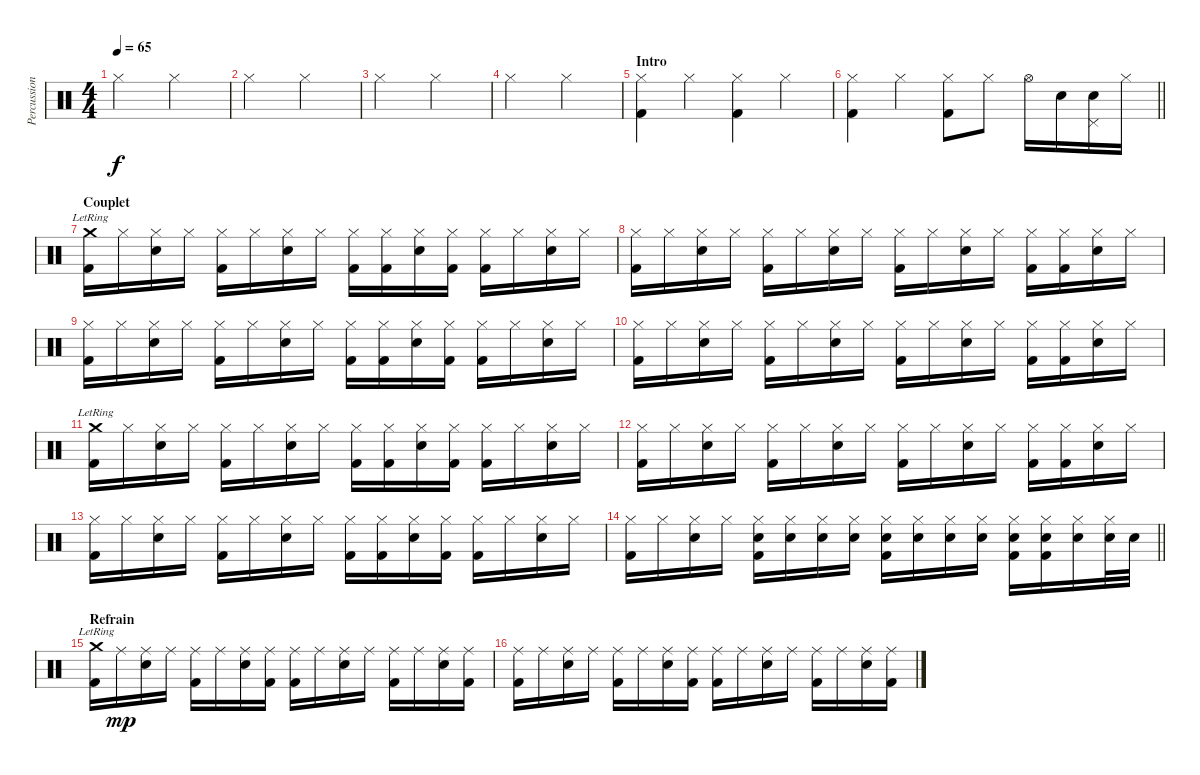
\track ("Percussions" "Percussion") {instrument percussion}
\staff {score}
\articulation defaults
\ts (4 4)
\tempo 65
\clef neutral
\ks c "Hi-Hat (closed)".2{dy f} "Hi-Hat (closed)".2
|
"Hi-Hat (closed)".2 "Hi-Hat (closed)".2 |
"Hi-Hat (closed)".2 "Hi-Hat (closed)".2 |
"Hi-Hat (closed)".2 "Hi-Hat (closed)".2 |
\section ("" "Intro")
("Hi-Hat (closed)" "Kick (hit) 2").4 "Hi-Hat (closed)".4 ("Hi-Hat (closed)" "Kick (hit) 2").4 "Hi-Hat (closed)".4 |
\barLineRight lightlight
("Hi-Hat (closed)" "Kick (hit) 2").4 "Hi-Hat (closed)".4 ("Hi-Hat (closed)" "Kick (hit) 2").8 "Hi-Hat (closed)".8 "Hi-Hat (open)".16 "Snare (hit) 2".16 ("Pedal Hi-Hat (hit)" "Snare (hit) 2").16 "Hi-Hat (closed)".16 |
\section ("" "Couplet")
("Crash medium (hit)"{lr} "Kick (hit) 2").16 "Hi-Hat (closed)".16 ("Hi-Hat (closed)" "Snare (hit) 2").16 "Hi-Hat (closed)".16 ("Hi-Hat (closed)" "Kick (hit) 2").16 "Hi-Hat (closed)".16 ("Hi-Hat (closed)" "Snare (hit) 2").16 "Hi-Hat (closed)".16 ("Hi-Hat (closed)" "Kick (hit) 2").16 ("Hi-Hat (closed)" "Kick (hit) 2").16 ("Hi-Hat (closed)" "Snare (hit) 2").16 ("Hi-Hat (closed)" "Kick (hit) 2").16 ("Hi-Hat (closed)" "Kick (hit) 2").16 "Hi-Hat (closed)".16 ("Hi-Hat (closed)" "Snare (hit) 2").16 "Hi-Hat (closed)".16 |
("Hi-Hat (closed)" "Kick (hit) 2").16 "Hi-Hat (closed)".16 ("Hi-Hat (closed)" "Snare (hit) 2").16 "Hi-Hat (closed)".16 ("Hi-Hat (closed)" "Kick (hit) 2").16 "Hi-Hat (closed)".16 ("Hi-Hat (closed)" "Snare (hit) 2").16 "Hi-Hat (closed)".16 ("Hi-Hat (closed)" "Kick (hit) 2").16 "Hi-Hat (closed)".16 ("Hi-Hat (closed)" "Snare (hit) 2").16 "Hi-Hat (closed)".16 ("Hi-Hat (closed)" "Kick (hit) 2").16 ("Hi-Hat (closed)" "Kick (hit) 2").16 ("Hi-Hat (closed)" "Snare (hit) 2").16 "Hi-Hat (closed)".16 |
("Hi-Hat (closed)" "Kick (hit) 2").16 "Hi-Hat (closed)".16 ("Hi-Hat (closed)" "Snare (hit) 2").16 "Hi-Hat (closed)".16 ("Hi-Hat (closed)" "Kick (hit) 2").16 "Hi-Hat (closed)".16 ("Hi-Hat (closed)" "Snare (hit) 2").16 "Hi-Hat (closed)".16 ("Hi-Hat (closed)" "Kick (hit) 2").16 ("Hi-Hat (closed)" "Kick (hit) 2").16 ("Hi-Hat (closed)" "Snare (hit) 2").16 ("Hi-Hat (closed)" "Kick (hit) 2").16 ("Hi-Hat (closed)" "Kick (hit) 2").16 "Hi-Hat (closed)".16 ("Hi-Hat (closed)" "Snare (hit) 2").16 "Hi-Hat (closed)".16 |
("Hi-Hat (closed)" "Kick (hit) 2").16 "Hi-Hat (closed)".16 ("Hi-Hat (closed)" "Snare (hit) 2").16 "Hi-Hat (closed)".16 ("Hi-Hat (closed)" "Kick (hit) 2").16 "Hi-Hat (closed)".16 ("Hi-Hat (closed)" "Snare (hit) 2").16 "Hi-Hat (closed)".16 ("Hi-Hat (closed)" "Kick (hit) 2").16 "Hi-Hat (closed)".16 ("Hi-Hat (closed)" "Snare (hit) 2").16 "Hi-Hat (closed)".16 ("Hi-Hat (closed)" "Kick (hit) 2").16 ("Hi-Hat (closed)" "Kick (hit) 2").16 ("Hi-Hat (closed)" "Snare (hit) 2").16 "Hi-Hat (closed)".16 |
("Crash medium (hit)"{lr} "Kick (hit) 2").16 "Hi-Hat (closed)".16 ("Hi-Hat (closed)" "Snare (hit) 2").16 "Hi-Hat (closed)".16 ("Hi-Hat (closed)" "Kick (hit) 2").16 "Hi-Hat (closed)".16 ("Hi-Hat (closed)" "Snare (hit) 2").16 "Hi-Hat (closed)".16 ("Hi-Hat (closed)" "Kick (hit) 2").16 ("Hi-Hat (closed)" "Kick (hit) 2").16 ("Hi-Hat (closed)" "Snare (hit) 2").16 ("Hi-Hat (closed)" "Kick (hit) 2").16 ("Hi-Hat (closed)" "Kick (hit) 2").16 "Hi-Hat (closed)".16 ("Hi-Hat (closed)" "Snare (hit) 2").16 "Hi-Hat (closed)".16 |
("Hi-Hat (closed)" "Kick (hit) 2").16 "Hi-Hat (closed)".16 ("Hi-Hat (closed)" "Snare (hit) 2").16 "Hi-Hat (closed)".16 ("Hi-Hat (closed)" "Kick (hit) 2").16 "Hi-Hat (closed)".16 ("Hi-Hat (closed)" "Snare (hit) 2").16 "Hi-Hat (closed)".16 ("Hi-Hat (closed)" "Kick (hit) 2").16 "Hi-Hat (closed)".16 ("Hi-Hat (closed)" "Snare (hit) 2").16 "Hi-Hat (closed)".16 ("Hi-Hat (closed)" "Kick (hit) 2").16 ("Hi-Hat (closed)" "Kick (hit) 2").16 ("Hi-Hat (closed)" "Snare (hit) 2").16 "Hi-Hat (closed)".16 |
("Hi-Hat (closed)" "Kick (hit) 2").16 "Hi-Hat (closed)".16 ("Hi-Hat (closed)" "Snare (hit) 2").16 "Hi-Hat (closed)".16 ("Hi-Hat (closed)" "Kick (hit) 2").16 "Hi-Hat (closed)".16 ("Hi-Hat (closed)" "Snare (hit) 2").16 "Hi-Hat (closed)".16 ("Hi-Hat (closed)" "Kick (hit) 2").16 ("Hi-Hat (closed)" "Kick (hit) 2").16 ("Hi-Hat (closed)" "Snare (hit) 2").16 ("Hi-Hat (closed)" "Kick (hit) 2").16 ("Hi-Hat (closed)" "Kick (hit) 2").16 "Hi-Hat (closed)".16 ("Hi-Hat (closed)" "Snare (hit) 2").16 "Hi-Hat (closed)".16 |
\barLineRight lightlight
("Hi-Hat (closed)" "Kick (hit) 2").16 "Hi-Hat (closed)".16 ("Hi-Hat (closed)" "Snare (hit) 2").16 "Hi-Hat (closed)".16 ("Hi-Hat (closed)" "Snare (hit) 2" "Kick (hit) 2").16 ("Hi-Hat (closed)" "Snare (hit) 2").16 ("Hi-Hat (closed)" "Snare (hit) 2").16 ("Hi-Hat (closed)" "Snare (hit) 2").16 ("Hi-Hat (closed)" "Snare (hit) 2" "Kick (hit) 2").16 ("Hi-Hat (closed)" "Snare (hit) 2").16 ("Hi-Hat (closed)" "Snare (hit) 2").16 ("Hi-Hat (closed)" "Snare (hit) 2").16 ("Hi-Hat (closed)" "Snare (hit) 2" "Kick (hit) 2").16 ("Hi-Hat (closed)" "Snare (hit) 2" "Kick (hit) 2").16 ("Hi-Hat (closed)" "Snare (hit) 2").16 ("Hi-Hat (closed)" "Snare (hit) 2").32 "Snare (hit) 2".32 |
\section ("" "Refrain")
("Crash medium (hit)"{lr} "Kick (hit) 2").16 "Ride (middle)".16{dy mp} ("Ride (middle)" "Snare (hit) 2").16 "Ride (middle)".16 ("Ride (middle)" "Kick (hit) 2").16 "Ride (middle)".16 ("Ride (middle)" "Snare (hit) 2").16 ("Ride (middle)" "Kick (hit) 2").16 ("Ride (middle)" "Kick (hit) 2").16 "Ride (middle)".16 ("Ride (middle)" "Snare (hit) 2").16 "Ride (middle)".16 ("Ride (middle)" "Kick (hit) 2").16 "Ride (middle)".16 ("Ride (middle)" "Snare (hit) 2").16 ("Ride (middle)" "Kick (hit) 2").16 |
("Ride (middle)" "Kick (hit) 2").16 "Ride (middle)".16 ("Ride (middle)" "Snare (hit) 2").16 "Ride (middle)".16 ("Ride (middle)" "Kick (hit) 2").16 "Ride (middle)".16 ("Ride (middle)" "Snare (hit) 2").16 ("Ride (middle)" "Kick (hit) 2").16 ("Ride (middle)" "Kick (hit) 2").16 "Ride (middle)".16 ("Ride (middle)" "Snare (hit) 2").16 "Ride (middle)".16 ("Ride (middle)" "Kick (hit) 2").16 "Ride (middle)".16 ("Ride (middle)" "Snare (hit) 2").16 ("Ride (middle)" "Kick (hit) 2").16
